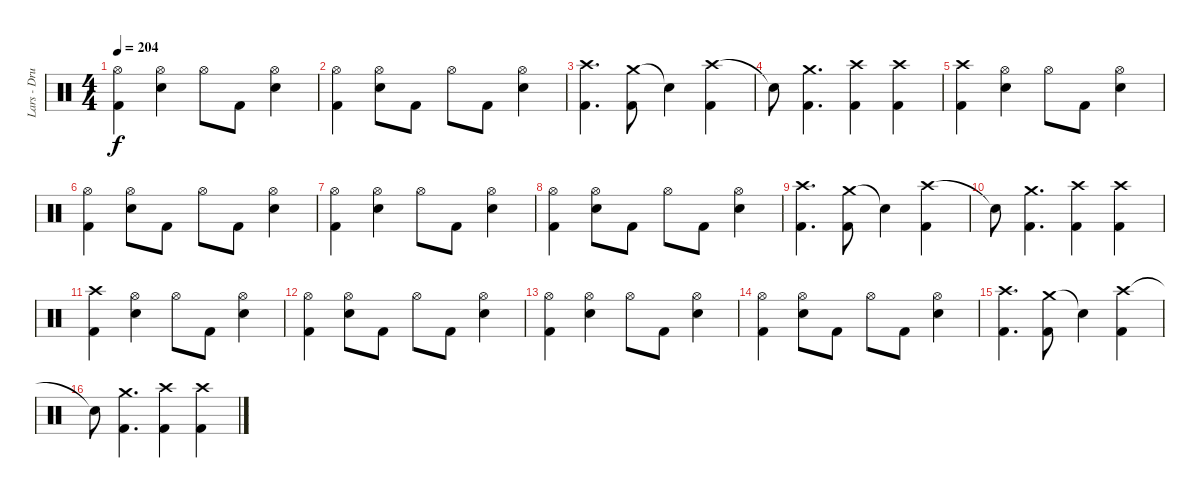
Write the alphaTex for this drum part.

\track ("Lars - Drums" "Lars - Dru") {instrument percussion}
\staff {score}
\articulation defaults
\ts (4 4)
\tempo 204
\clef neutral
\ks c
("Hi-Hat (open)" "Kick (hit) 2").4{dy f} ("Hi-Hat (open)" "Electric Snare (hit)").4 "Hi-Hat (open)".8 "Kick (hit) 2".8 ("Hi-Hat (open)" "Electric Snare (hit)").4 |
("Hi-Hat (open)" "Kick (hit) 2").4 ("Hi-Hat (open)" "Electric Snare (hit)").8 "Kick (hit) 2".8 "Hi-Hat (open)".8 "Kick (hit) 2".8 ("Hi-Hat (open)" "Electric Snare (hit)").4 |
("Crash high (hit)" "Kick (hit) 2").4{d} ("Crash medium (hit)" "Kick (hit) 2").8 "Snare (hit)"{t}.4 ("Crash high (hit)" "Kick (hit) 2").4 |
"Snare (hit)"{t}.8 ("Crash medium (hit)" "Kick (hit) 2").4{d} ("Crash high (hit)" "Kick (hit) 2").4 ("Crash high (hit)" "Kick (hit) 2").4 |
("Crash high (hit)" "Kick (hit) 2").4 ("Hi-Hat (open)" "Electric Snare (hit)").4 "Hi-Hat (open)".8 "Kick (hit) 2".8 ("Hi-Hat (open)" "Electric Snare (hit)").4 |
("Hi-Hat (open)" "Kick (hit) 2").4 ("Hi-Hat (open)" "Electric Snare (hit)").8 "Kick (hit) 2".8 "Hi-Hat (open)".8 "Kick (hit) 2".8 ("Hi-Hat (open)" "Electric Snare (hit)").4 |
("Hi-Hat (open)" "Kick (hit) 2").4 ("Hi-Hat (open)" "Electric Snare (hit)").4 "Hi-Hat (open)".8 "Kick (hit) 2".8 ("Hi-Hat (open)" "Electric Snare (hit)").4 |
("Hi-Hat (open)" "Kick (hit) 2").4 ("Hi-Hat (open)" "Electric Snare (hit)").8 "Kick (hit) 2".8 "Hi-Hat (open)".8 "Kick (hit) 2".8 ("Hi-Hat (open)" "Electric Snare (hit)").4 |
("Crash high (hit)" "Kick (hit) 2").4{d} ("Crash medium (hit)" "Kick (hit) 2").8 "Snare (hit)"{t}.4 ("Crash high (hit)" "Kick (hit) 2").4 |
"Snare (hit)"{t}.8 ("Crash medium (hit)" "Kick (hit) 2").4{d} ("Crash high (hit)" "Kick (hit) 2").4 ("Crash high (hit)" "Kick (hit) 2").4 |
("Crash high (hit)" "Kick (hit) 2").4 ("Hi-Hat (open)" "Electric Snare (hit)").4 "Hi-Hat (open)".8 "Kick (hit) 2".8 ("Hi-Hat (open)" "Electric Snare (hit)").4 |
("Hi-Hat (open)" "Kick (hit) 2").4 ("Hi-Hat (open)" "Electric Snare (hit)").8 "Kick (hit) 2".8 "Hi-Hat (open)".8 "Kick (hit) 2".8 ("Hi-Hat (open)" "Electric Snare (hit)").4 |
("Hi-Hat (open)" "Kick (hit) 2").4 ("Hi-Hat (open)" "Electric Snare (hit)").4 "Hi-Hat (open)".8 "Kick (hit) 2".8 ("Hi-Hat (open)" "Electric Snare (hit)").4 |
("Hi-Hat (open)" "Kick (hit) 2").4 ("Hi-Hat (open)" "Electric Snare (hit)").8 "Kick (hit) 2".8 "Hi-Hat (open)".8 "Kick (hit) 2".8 ("Hi-Hat (open)" "Electric Snare (hit)").4 |
("Crash high (hit)" "Kick (hit) 2").4{d} ("Crash medium (hit)" "Kick (hit) 2").8 "Snare (hit)"{t}.4 ("Crash high (hit)" "Kick (hit) 2").4 |
"Snare (hit)"{t}.8 ("Crash medium (hit)" "Kick (hit) 2").4{d} ("Crash high (hit)" "Kick (hit) 2").4 ("Crash high (hit)" "Kick (hit) 2").4
